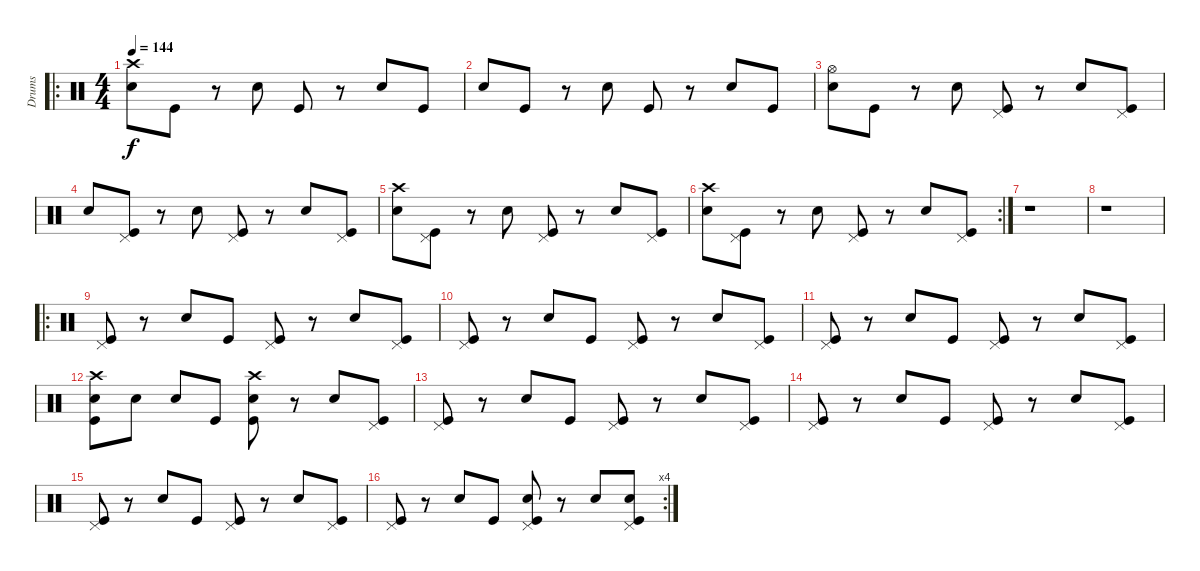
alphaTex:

\track ("Drums" "Drums") {instrument percussion}
\staff {score}
\articulation defaults
\ro
\ts (4 4)
\tempo 144
\clef neutral
\ks c
("Crash high (hit)" "Snare (hit) 2").8{dy f} "Kick (hit)".8 r.8 "Snare (hit) 2".8 "Kick (hit)".8 r.8 "Snare (hit) 2".8 "Kick (hit)".8 |
"Snare (hit) 2".8 "Kick (hit)".8 r.8 "Snare (hit) 2".8 "Kick (hit)".8 r.8 "Snare (hit) 2".8 "Kick (hit)".8 |
("Hi-Hat (open)" "Snare (hit) 2").8 "Kick (hit)".8 r.8 "Snare (hit) 2".8 ("Pedal Hi-Hat (hit)" "Kick (hit)").8 r.8 "Snare (hit) 2".8 ("Pedal Hi-Hat (hit)" "Kick (hit)").8 |
"Snare (hit) 2".8 ("Pedal Hi-Hat (hit)" "Kick (hit)").8 r.8 "Snare (hit) 2".8 ("Pedal Hi-Hat (hit)" "Kick (hit)").8 r.8 "Snare (hit) 2".8 ("Pedal Hi-Hat (hit)" "Kick (hit)").8 |
("Crash high (hit)" "Snare (hit) 2").8 ("Pedal Hi-Hat (hit)" "Kick (hit)").8 r.8 "Snare (hit) 2".8 ("Pedal Hi-Hat (hit)" "Kick (hit)").8 r.8 "Snare (hit) 2".8 ("Pedal Hi-Hat (hit)" "Kick (hit)").8 |
\rc 2
("Crash high (hit)" "Snare (hit) 2").8 ("Pedal Hi-Hat (hit)" "Kick (hit)").8 r.8 "Snare (hit) 2".8 ("Pedal Hi-Hat (hit)" "Kick (hit)").8 r.8 "Snare (hit) 2".8 ("Pedal Hi-Hat (hit)" "Kick (hit)").8 |
r.1 |
r.1 |
\ro
("Pedal Hi-Hat (hit)" "Kick (hit)").8 r.8 "Snare (hit) 2".8 "Kick (hit)".8 ("Pedal Hi-Hat (hit)" "Kick (hit)").8 r.8 "Snare (hit) 2".8 ("Pedal Hi-Hat (hit)" "Kick (hit)").8 |
("Pedal Hi-Hat (hit)" "Kick (hit)").8 r.8 "Snare (hit) 2".8 "Kick (hit)".8 ("Pedal Hi-Hat (hit)" "Kick (hit)").8 r.8 "Snare (hit) 2".8 ("Pedal Hi-Hat (hit)" "Kick (hit)").8 |
("Pedal Hi-Hat (hit)" "Kick (hit)").8 r.8 "Snare (hit) 2".8 "Kick (hit)".8 ("Pedal Hi-Hat (hit)" "Kick (hit)").8 r.8 "Snare (hit) 2".8 ("Pedal Hi-Hat (hit)" "Kick (hit)").8 |
("Crash high (hit)" "Snare (hit) 2" "Kick (hit)").8 "Snare (hit) 2".8 "Snare (hit) 2".8 "Kick (hit)".8 ("Crash high (hit)" "Snare (hit) 2" "Kick (hit)").8 r.8 "Snare (hit) 2".8 ("Pedal Hi-Hat (hit)" "Kick (hit)").8 |
("Pedal Hi-Hat (hit)" "Kick (hit)").8 r.8 "Snare (hit) 2".8 "Kick (hit)".8 ("Pedal Hi-Hat (hit)" "Kick (hit)").8 r.8 "Snare (hit) 2".8 ("Pedal Hi-Hat (hit)" "Kick (hit)").8 |
("Pedal Hi-Hat (hit)" "Kick (hit)").8 r.8 "Snare (hit) 2".8 "Kick (hit)".8 ("Pedal Hi-Hat (hit)" "Kick (hit)").8 r.8 "Snare (hit) 2".8 ("Pedal Hi-Hat (hit)" "Kick (hit)").8 |
("Pedal Hi-Hat (hit)" "Kick (hit)").8 r.8 "Snare (hit) 2".8 "Kick (hit)".8 ("Pedal Hi-Hat (hit)" "Kick (hit)").8 r.8 "Snare (hit) 2".8 ("Pedal Hi-Hat (hit)" "Kick (hit)").8 |
\rc 4
("Pedal Hi-Hat (hit)" "Kick (hit)").8 r.8 "Snare (hit) 2".8 "Kick (hit)".8 ("Pedal Hi-Hat (hit)" "Snare (hit) 2" "Kick (hit)").8 r.8 "Snare (hit) 2".8 ("Pedal Hi-Hat (hit)" "Snare (hit) 2" "Kick (hit)").8
